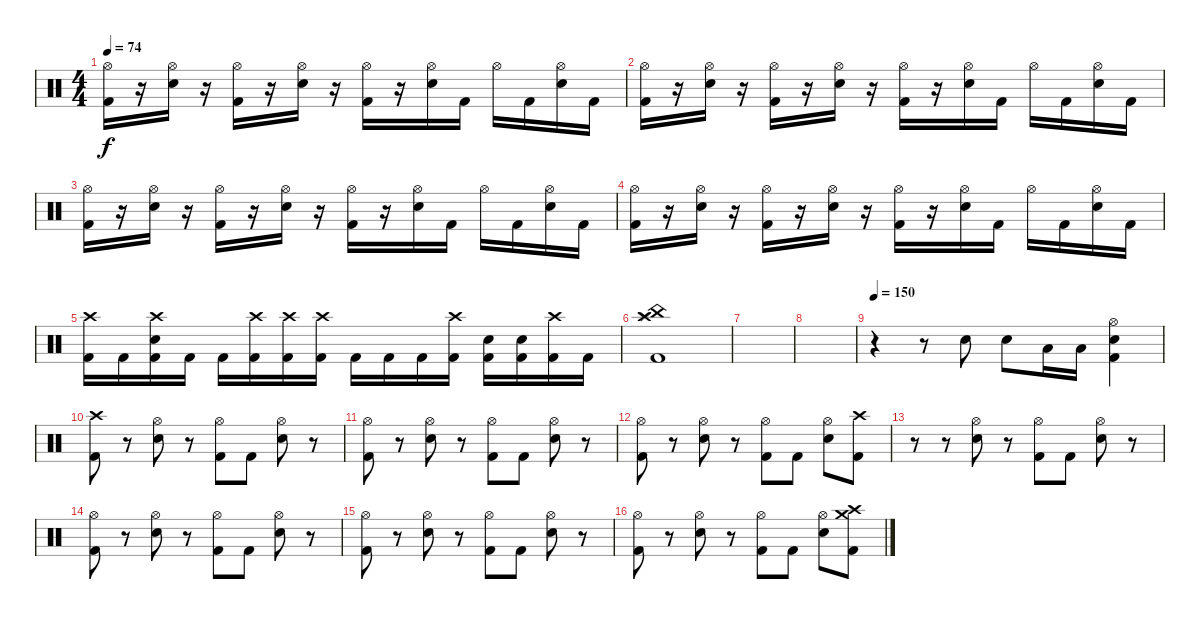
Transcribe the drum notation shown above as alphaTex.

\track "" {instrument percussion}
\staff {score}
\articulation defaults
\ts (4 4)
\tempo 74
\clef neutral
\ks c
("Hi-Hat (open)" "Kick (hit) 2").16{dy f} r.16 ("Hi-Hat (open)" "Electric Snare (hit)").16 r.16 ("Hi-Hat (open)" "Kick (hit) 2").16 r.16 ("Hi-Hat (open)" "Electric Snare (hit)").16 r.16 ("Hi-Hat (open)" "Kick (hit) 2").16 r.16 ("Hi-Hat (open)" "Electric Snare (hit)").16 "Kick (hit) 2".16 "Hi-Hat (open)".16 "Kick (hit) 2".16 ("Hi-Hat (open)" "Electric Snare (hit)").16 "Kick (hit) 2".16 |
("Hi-Hat (open)" "Kick (hit) 2").16 r.16 ("Hi-Hat (open)" "Electric Snare (hit)").16 r.16 ("Hi-Hat (open)" "Kick (hit) 2").16 r.16 ("Hi-Hat (open)" "Electric Snare (hit)").16 r.16 ("Hi-Hat (open)" "Kick (hit) 2").16 r.16 ("Hi-Hat (open)" "Electric Snare (hit)").16 "Kick (hit) 2".16 "Hi-Hat (open)".16 "Kick (hit) 2".16 ("Hi-Hat (open)" "Electric Snare (hit)").16 "Kick (hit) 2".16 |
("Hi-Hat (open)" "Kick (hit) 2").16 r.16 ("Hi-Hat (open)" "Electric Snare (hit)").16 r.16 ("Hi-Hat (open)" "Kick (hit) 2").16 r.16 ("Hi-Hat (open)" "Electric Snare (hit)").16 r.16 ("Hi-Hat (open)" "Kick (hit) 2").16 r.16 ("Hi-Hat (open)" "Electric Snare (hit)").16 "Kick (hit) 2".16 "Hi-Hat (open)".16 "Kick (hit) 2".16 ("Hi-Hat (open)" "Electric Snare (hit)").16 "Kick (hit) 2".16 |
("Hi-Hat (open)" "Kick (hit) 2").16 r.16 ("Hi-Hat (open)" "Electric Snare (hit)").16 r.16 ("Hi-Hat (open)" "Kick (hit) 2").16 r.16 ("Hi-Hat (open)" "Electric Snare (hit)").16 r.16 ("Hi-Hat (open)" "Kick (hit) 2").16 r.16 ("Hi-Hat (open)" "Electric Snare (hit)").16 "Kick (hit) 2".16 "Hi-Hat (open)".16 "Kick (hit) 2".16 ("Hi-Hat (open)" "Electric Snare (hit)").16 "Kick (hit) 2".16 |
("Crash high (hit)" "Kick (hit) 2").16 "Kick (hit) 2".16 ("Crash high (hit)" "Electric Snare (hit)" "Kick (hit) 2").16 "Kick (hit) 2".16 "Kick (hit) 2".16 ("Crash high (hit)" "Kick (hit) 2").16 ("Crash high (hit)" "Kick (hit) 2").16 ("Crash high (hit)" "Kick (hit) 2").16 "Kick (hit) 2".16 "Kick (hit) 2".16 "Kick (hit) 2".16 ("Crash high (hit)" "Kick (hit) 2").16 ("Electric Snare (hit)" "Kick (hit) 2").16 ("Electric Snare (hit)" "Kick (hit) 2").16 ("Crash high (hit)" "Kick (hit) 2").16 "Kick (hit) 2".16 |
("Crash high (hit)" "Splash (hit)" "China (hit)" "Kick (hit) 2").1 |
|
|
\tempo 150
r.4 r.8 "Snare (hit) 2".8 "Snare (hit) 2".8 "Low Tom (hit)".16 "Low Tom (hit)".16 ("Hi-Hat (open)" "Snare (hit) 2" "Kick (hit) 2").4 |
("Crash high (hit)" "Kick (hit) 2").8 r.8 ("Hi-Hat (open)" "Electric Snare (hit)").8 r.8 ("Hi-Hat (open)" "Kick (hit) 2").8 "Kick (hit) 2".8 ("Hi-Hat (open)" "Electric Snare (hit)").8 r.8 |
\section ("" "")
("Hi-Hat (open)" "Kick (hit) 2").8 r.8 ("Hi-Hat (open)" "Electric Snare (hit)").8 r.8 ("Hi-Hat (open)" "Kick (hit) 2").8 "Kick (hit) 2".8 ("Hi-Hat (open)" "Electric Snare (hit)").8 r.8 |
("Hi-Hat (open)" "Kick (hit) 2").8 r.8 ("Hi-Hat (open)" "Electric Snare (hit)").8 r.8 ("Hi-Hat (open)" "Kick (hit) 2").8 "Kick (hit) 2".8 ("Hi-Hat (open)" "Electric Snare (hit)").8 ("Crash high (hit)" "Kick (hit) 2").8 |
r.8 r.8 ("Hi-Hat (open)" "Electric Snare (hit)").8 r.8 ("Hi-Hat (open)" "Kick (hit) 2").8 "Kick (hit) 2".8 ("Hi-Hat (open)" "Electric Snare (hit)").8 r.8 |
("Hi-Hat (open)" "Kick (hit) 2").8 r.8 ("Hi-Hat (open)" "Electric Snare (hit)").8 r.8 ("Hi-Hat (open)" "Kick (hit) 2").8 "Kick (hit) 2".8 ("Hi-Hat (open)" "Electric Snare (hit)").8 r.8 |
("Hi-Hat (open)" "Kick (hit) 2").8 r.8 ("Hi-Hat (open)" "Electric Snare (hit)").8 r.8 ("Hi-Hat (open)" "Kick (hit) 2").8 "Kick (hit) 2".8 ("Hi-Hat (open)" "Electric Snare (hit)").8 r.8 |
("Hi-Hat (open)" "Kick (hit) 2").8 r.8 ("Hi-Hat (open)" "Electric Snare (hit)").8 r.8 ("Hi-Hat (open)" "Kick (hit) 2").8 "Kick (hit) 2".8 ("Hi-Hat (open)" "Electric Snare (hit)").8 ("Crash medium (hit)" "Crash high (hit)" "Kick (hit) 2").8
